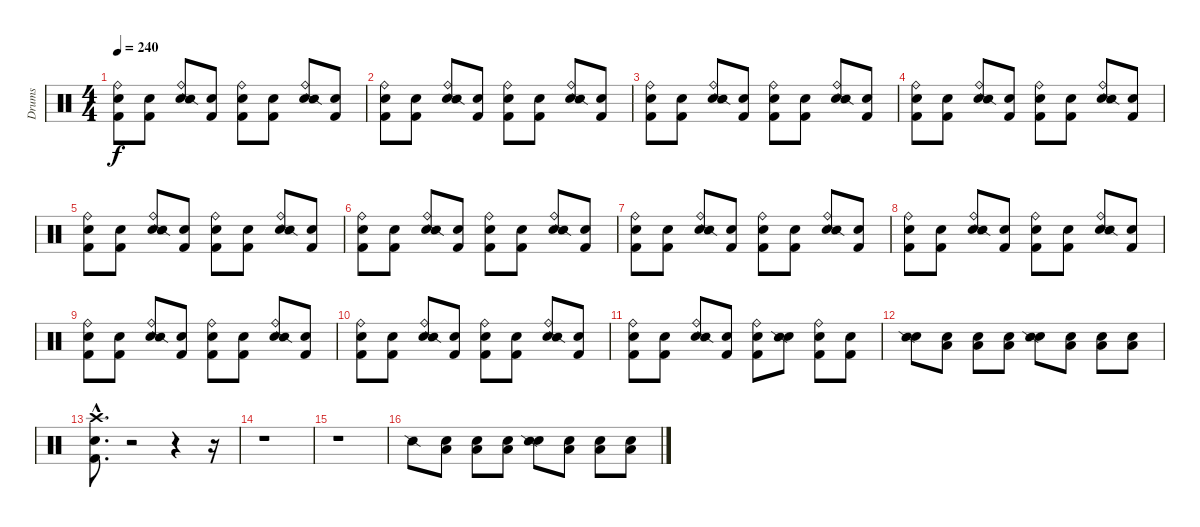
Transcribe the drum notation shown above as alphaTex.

\track ("Drums" "Drums") {instrument percussion}
\staff {score}
\articulation defaults
\ts (4 4)
\tempo 240
\clef neutral
\ks c
("Snare (hit)" "Kick (hit) 2" "Ride (bell)").8{dy f} ("Snare (hit)" "Kick (hit) 2").8 ("Snare (hit)" "Ride (bell)" "Snare (side stick) 2").8 ("Snare (hit)" "Kick (hit) 2").8 ("Snare (hit)" "Kick (hit) 2" "Ride (bell)").8 ("Snare (hit)" "Kick (hit) 2").8 ("Snare (hit)" "Ride (bell)" "Snare (side stick) 2").8 ("Snare (hit)" "Kick (hit) 2").8 |
("Snare (hit)" "Kick (hit) 2" "Ride (bell)").8 ("Snare (hit)" "Kick (hit) 2").8 ("Snare (hit)" "Ride (bell)" "Snare (side stick) 2").8 ("Snare (hit)" "Kick (hit) 2").8 ("Snare (hit)" "Kick (hit) 2" "Ride (bell)").8 ("Snare (hit)" "Kick (hit) 2").8 ("Snare (hit)" "Ride (bell)" "Snare (side stick) 2").8 ("Snare (hit)" "Kick (hit) 2").8 |
("Snare (hit)" "Kick (hit) 2" "Ride (bell)").8 ("Snare (hit)" "Kick (hit) 2").8 ("Snare (hit)" "Ride (bell)" "Snare (side stick) 2").8 ("Snare (hit)" "Kick (hit) 2").8 ("Snare (hit)" "Kick (hit) 2" "Ride (bell)").8 ("Snare (hit)" "Kick (hit) 2").8 ("Snare (hit)" "Ride (bell)" "Snare (side stick) 2").8 ("Snare (hit)" "Kick (hit) 2").8 |
("Snare (hit)" "Kick (hit) 2" "Ride (bell)").8 ("Snare (hit)" "Kick (hit) 2").8 ("Snare (hit)" "Ride (bell)" "Snare (side stick) 2").8 ("Snare (hit)" "Kick (hit) 2").8 ("Snare (hit)" "Kick (hit) 2" "Ride (bell)").8 ("Snare (hit)" "Kick (hit) 2").8 ("Snare (hit)" "Ride (bell)" "Snare (side stick) 2").8 ("Snare (hit)" "Kick (hit) 2").8 |
("Snare (hit)" "Kick (hit) 2" "Ride (bell)").8 ("Snare (hit)" "Kick (hit) 2").8 ("Snare (hit)" "Ride (bell)" "Snare (side stick) 2").8 ("Snare (hit)" "Kick (hit) 2").8 ("Snare (hit)" "Kick (hit) 2" "Ride (bell)").8 ("Snare (hit)" "Kick (hit) 2").8 ("Snare (hit)" "Ride (bell)" "Snare (side stick) 2").8 ("Snare (hit)" "Kick (hit) 2").8 |
("Snare (hit)" "Kick (hit) 2" "Ride (bell)").8 ("Snare (hit)" "Kick (hit) 2").8 ("Snare (hit)" "Ride (bell)" "Snare (side stick) 2").8 ("Snare (hit)" "Kick (hit) 2").8 ("Snare (hit)" "Kick (hit) 2" "Ride (bell)").8 ("Snare (hit)" "Kick (hit) 2").8 ("Snare (hit)" "Ride (bell)" "Snare (side stick) 2").8 ("Snare (hit)" "Kick (hit) 2").8 |
("Snare (hit)" "Kick (hit) 2" "Ride (bell)").8 ("Snare (hit)" "Kick (hit) 2").8 ("Snare (hit)" "Ride (bell)" "Snare (side stick) 2").8 ("Snare (hit)" "Kick (hit) 2").8 ("Snare (hit)" "Kick (hit) 2" "Ride (bell)").8 ("Snare (hit)" "Kick (hit) 2").8 ("Snare (hit)" "Ride (bell)" "Snare (side stick) 2").8 ("Snare (hit)" "Kick (hit) 2").8 |
("Snare (hit)" "Kick (hit) 2" "Ride (bell)").8 ("Snare (hit)" "Kick (hit) 2").8 ("Snare (hit)" "Ride (bell)" "Snare (side stick) 2").8 ("Snare (hit)" "Kick (hit) 2").8 ("Snare (hit)" "Kick (hit) 2" "Ride (bell)").8 ("Snare (hit)" "Kick (hit) 2").8 ("Snare (hit)" "Ride (bell)" "Snare (side stick) 2").8 ("Snare (hit)" "Kick (hit) 2").8 |
("Snare (hit)" "Kick (hit) 2" "Ride (bell)").8 ("Snare (hit)" "Kick (hit) 2").8 ("Snare (hit)" "Ride (bell)" "Snare (side stick) 2").8 ("Snare (hit)" "Kick (hit) 2").8 ("Snare (hit)" "Kick (hit) 2" "Ride (bell)").8 ("Snare (hit)" "Kick (hit) 2").8 ("Snare (hit)" "Ride (bell)" "Snare (side stick) 2").8 ("Snare (hit)" "Kick (hit) 2").8 |
("Snare (hit)" "Kick (hit) 2" "Ride (bell)").8 ("Snare (hit)" "Kick (hit) 2").8 ("Snare (hit)" "Ride (bell)" "Snare (side stick) 2").8 ("Snare (hit)" "Kick (hit) 2").8 ("Snare (hit)" "Kick (hit) 2" "Ride (bell)").8 ("Snare (hit)" "Kick (hit) 2").8 ("Snare (hit)" "Ride (bell)" "Snare (side stick) 2").8 ("Snare (hit)" "Kick (hit) 2").8 |
("Snare (hit)" "Kick (hit) 2" "Ride (bell)").8 ("Snare (hit)" "Kick (hit) 2").8 ("Snare (hit)" "Ride (bell)" "Snare (side stick) 2").8 ("Snare (hit)" "Kick (hit) 2").8 ("Snare (hit)" "Kick (hit) 2" "Ride (bell)").8 ("Snare (hit)" "Snare (side stick) 2").8 ("Snare (hit)" "Kick (hit) 2" "Ride (bell)").8 ("Snare (hit)" "Kick (hit) 2").8 |
("Snare (hit)" "Snare (side stick) 2").8 ("Snare (hit)" "Low Tom (hit)").8 ("Snare (hit)" "Low Tom (hit)").8 ("Snare (hit)" "Low Tom (hit)").8 ("Snare (hit)" "Snare (side stick) 2").8 ("Snare (hit)" "Low Tom (hit)").8 ("Snare (hit)" "Low Tom (hit)").8 ("Snare (hit)" "Low Tom (hit)").8 |
("Snare (hit)"{hac} "Kick (hit) 2"{hac} "Crash high (hit)"{hac}).8{d} r.2 r.4 r.16 |
r.1 |
r.1 |
"Snare (side stick) 2".8 ("Snare (hit)" "Low Tom (hit)").8 ("Snare (hit)" "Low Tom (hit)").8 ("Snare (hit)" "Low Tom (hit)").8 ("Snare (hit)" "Snare (side stick) 2").8 ("Snare (hit)" "Low Tom (hit)").8 ("Snare (hit)" "Low Tom (hit)").8 ("Snare (hit)" "Low Tom (hit)").8
